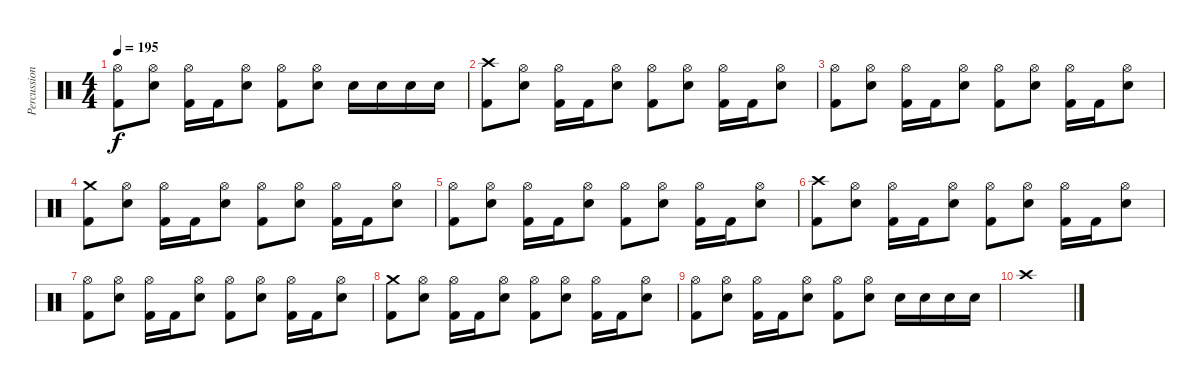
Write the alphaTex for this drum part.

\track ("Percussion" "Percussion") {instrument percussion}
\staff {score}
\articulation defaults
\ts (4 4)
\tempo 195
\clef neutral
\ks c
("Hi-Hat (open)" "Kick (hit) 2").8{dy f} ("Hi-Hat (open)" "Electric Snare (hit)").8 ("Hi-Hat (open)" "Kick (hit) 2").16 "Kick (hit) 2".16 ("Hi-Hat (open)" "Electric Snare (hit)").8 ("Hi-Hat (open)" "Kick (hit) 2").8 ("Hi-Hat (open)" "Electric Snare (hit)").8 "Electric Snare (hit)".16 "Electric Snare (hit)".16 "Electric Snare (hit)".16 "Electric Snare (hit)".16 |
("Crash high (hit)" "Kick (hit) 2").8 ("Hi-Hat (open)" "Electric Snare (hit)").8 ("Hi-Hat (open)" "Kick (hit) 2").16 "Kick (hit) 2".16 ("Hi-Hat (open)" "Electric Snare (hit)").8 ("Hi-Hat (open)" "Kick (hit) 2").8 ("Hi-Hat (open)" "Electric Snare (hit)").8 ("Hi-Hat (open)" "Kick (hit) 2").16 "Kick (hit) 2".16 ("Hi-Hat (open)" "Electric Snare (hit)").8 |
("Hi-Hat (open)" "Kick (hit) 2").8 ("Hi-Hat (open)" "Electric Snare (hit)").8 ("Hi-Hat (open)" "Kick (hit) 2").16 "Kick (hit) 2".16 ("Hi-Hat (open)" "Electric Snare (hit)").8 ("Hi-Hat (open)" "Kick (hit) 2").8 ("Hi-Hat (open)" "Electric Snare (hit)").8 ("Hi-Hat (open)" "Kick (hit) 2").16 "Kick (hit) 2".16 ("Hi-Hat (open)" "Electric Snare (hit)").8 |
("Crash medium (hit)" "Kick (hit) 2").8 ("Hi-Hat (open)" "Electric Snare (hit)").8 ("Hi-Hat (open)" "Kick (hit) 2").16 "Kick (hit) 2".16 ("Hi-Hat (open)" "Electric Snare (hit)").8 ("Hi-Hat (open)" "Kick (hit) 2").8 ("Hi-Hat (open)" "Electric Snare (hit)").8 ("Hi-Hat (open)" "Kick (hit) 2").16 "Kick (hit) 2".16 ("Hi-Hat (open)" "Electric Snare (hit)").8 |
("Hi-Hat (open)" "Kick (hit) 2").8 ("Hi-Hat (open)" "Electric Snare (hit)").8 ("Hi-Hat (open)" "Kick (hit) 2").16 "Kick (hit) 2".16 ("Hi-Hat (open)" "Electric Snare (hit)").8 ("Hi-Hat (open)" "Kick (hit) 2").8 ("Hi-Hat (open)" "Electric Snare (hit)").8 ("Hi-Hat (open)" "Kick (hit) 2").16 "Kick (hit) 2".16 ("Hi-Hat (open)" "Electric Snare (hit)").8 |
("Crash high (hit)" "Kick (hit) 2").8 ("Hi-Hat (open)" "Electric Snare (hit)").8 ("Hi-Hat (open)" "Kick (hit) 2").16 "Kick (hit) 2".16 ("Hi-Hat (open)" "Electric Snare (hit)").8 ("Hi-Hat (open)" "Kick (hit) 2").8 ("Hi-Hat (open)" "Electric Snare (hit)").8 ("Hi-Hat (open)" "Kick (hit) 2").16 "Kick (hit) 2".16 ("Hi-Hat (open)" "Electric Snare (hit)").8 |
("Hi-Hat (open)" "Kick (hit) 2").8 ("Hi-Hat (open)" "Electric Snare (hit)").8 ("Hi-Hat (open)" "Kick (hit) 2").16 "Kick (hit) 2".16 ("Hi-Hat (open)" "Electric Snare (hit)").8 ("Hi-Hat (open)" "Kick (hit) 2").8 ("Hi-Hat (open)" "Electric Snare (hit)").8 ("Hi-Hat (open)" "Kick (hit) 2").16 "Kick (hit) 2".16 ("Hi-Hat (open)" "Electric Snare (hit)").8 |
("Crash medium (hit)" "Kick (hit) 2").8 ("Hi-Hat (open)" "Electric Snare (hit)").8 ("Hi-Hat (open)" "Kick (hit) 2").16 "Kick (hit) 2".16 ("Hi-Hat (open)" "Electric Snare (hit)").8 ("Hi-Hat (open)" "Kick (hit) 2").8 ("Hi-Hat (open)" "Electric Snare (hit)").8 ("Hi-Hat (open)" "Kick (hit) 2").16 "Kick (hit) 2".16 ("Hi-Hat (open)" "Electric Snare (hit)").8 |
("Hi-Hat (open)" "Kick (hit) 2").8 ("Hi-Hat (open)" "Electric Snare (hit)").8 ("Hi-Hat (open)" "Kick (hit) 2").16 "Kick (hit) 2".16 ("Hi-Hat (open)" "Electric Snare (hit)").8 ("Hi-Hat (open)" "Kick (hit) 2").8 ("Hi-Hat (open)" "Electric Snare (hit)").8 "Electric Snare (hit)".16 "Electric Snare (hit)".16 "Electric Snare (hit)".16 "Electric Snare (hit)".16 |
"Crash high (hit)".1
